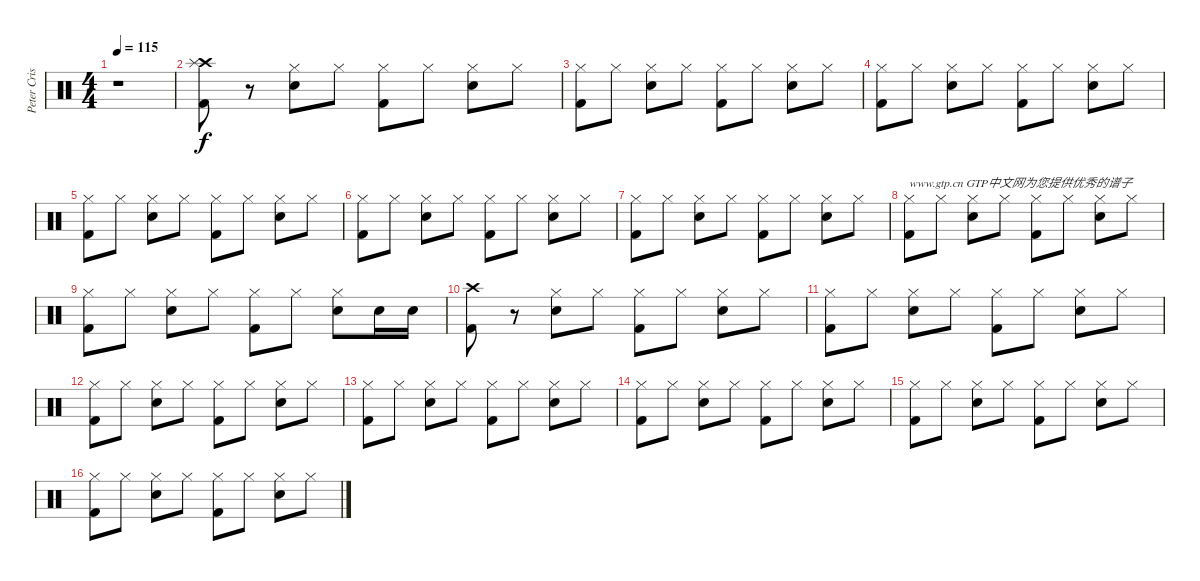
\track ("Peter Criss" "Peter Cris") {instrument percussion}
\staff {score}
\articulation defaults
\ts (4 4)
\tempo 115
\clef neutral
\ks c
r.1{dy f} |
("Crash high (hit)" "Splash (hit)" "Kick (hit) 2").8 r.8 ("Hi-Hat (closed)" "Electric Snare (hit)").8 "Hi-Hat (closed)".8 ("Hi-Hat (closed)" "Kick (hit) 2").8 "Hi-Hat (closed)".8 ("Hi-Hat (closed)" "Electric Snare (hit)").8 "Hi-Hat (closed)".8 |
("Hi-Hat (closed)" "Kick (hit) 2").8 "Hi-Hat (closed)".8 ("Hi-Hat (closed)" "Electric Snare (hit)").8 "Hi-Hat (closed)".8 ("Hi-Hat (closed)" "Kick (hit) 2").8 "Hi-Hat (closed)".8 ("Hi-Hat (closed)" "Electric Snare (hit)").8 "Hi-Hat (closed)".8 |
("Hi-Hat (closed)" "Kick (hit) 2").8 "Hi-Hat (closed)".8 ("Hi-Hat (closed)" "Electric Snare (hit)").8 "Hi-Hat (closed)".8 ("Hi-Hat (closed)" "Kick (hit) 2").8 "Hi-Hat (closed)".8 ("Hi-Hat (closed)" "Electric Snare (hit)").8 "Hi-Hat (closed)".8 |
("Hi-Hat (closed)" "Kick (hit) 2").8 "Hi-Hat (closed)".8 ("Hi-Hat (closed)" "Electric Snare (hit)").8 "Hi-Hat (closed)".8 ("Hi-Hat (closed)" "Kick (hit) 2").8 "Hi-Hat (closed)".8 ("Hi-Hat (closed)" "Electric Snare (hit)").8 "Hi-Hat (closed)".8 |
("Hi-Hat (closed)" "Kick (hit) 2").8 "Hi-Hat (closed)".8 ("Hi-Hat (closed)" "Electric Snare (hit)").8 "Hi-Hat (closed)".8 ("Hi-Hat (closed)" "Kick (hit) 2").8 "Hi-Hat (closed)".8 ("Hi-Hat (closed)" "Electric Snare (hit)").8 "Hi-Hat (closed)".8 |
("Hi-Hat (closed)" "Kick (hit) 2").8 "Hi-Hat (closed)".8 ("Hi-Hat (closed)" "Electric Snare (hit)").8 "Hi-Hat (closed)".8 ("Hi-Hat (closed)" "Kick (hit) 2").8 "Hi-Hat (closed)".8 ("Hi-Hat (closed)" "Electric Snare (hit)").8 "Hi-Hat (closed)".8 |
("Hi-Hat (closed)" "Kick (hit) 2").8{txt "www.gtp.cn GTP中文网为您提供优秀的谱子"} "Hi-Hat (closed)".8 ("Hi-Hat (closed)" "Electric Snare (hit)").8 "Hi-Hat (closed)".8 ("Hi-Hat (closed)" "Kick (hit) 2").8 "Hi-Hat (closed)".8 ("Hi-Hat (closed)" "Electric Snare (hit)").8 "Hi-Hat (closed)".8 |
("Hi-Hat (closed)" "Kick (hit) 2").8 "Hi-Hat (closed)".8 ("Hi-Hat (closed)" "Electric Snare (hit)").8 "Hi-Hat (closed)".8 ("Hi-Hat (closed)" "Kick (hit) 2").8 "Hi-Hat (closed)".8 ("Hi-Hat (closed)" "Electric Snare (hit)").8 "Electric Snare (hit)".16 "Electric Snare (hit)".16 |
("Crash high (hit)" "Kick (hit) 2").8 r.8 ("Hi-Hat (closed)" "Electric Snare (hit)").8 "Hi-Hat (closed)".8 ("Hi-Hat (closed)" "Kick (hit) 2").8 "Hi-Hat (closed)".8 ("Hi-Hat (closed)" "Electric Snare (hit)").8 "Hi-Hat (closed)".8 |
("Hi-Hat (closed)" "Kick (hit) 2").8 "Hi-Hat (closed)".8 ("Hi-Hat (closed)" "Electric Snare (hit)").8 "Hi-Hat (closed)".8 ("Hi-Hat (closed)" "Kick (hit) 2").8 "Hi-Hat (closed)".8 ("Hi-Hat (closed)" "Electric Snare (hit)").8 "Hi-Hat (closed)".8 |
("Hi-Hat (closed)" "Kick (hit) 2").8 "Hi-Hat (closed)".8 ("Hi-Hat (closed)" "Electric Snare (hit)").8 "Hi-Hat (closed)".8 ("Hi-Hat (closed)" "Kick (hit) 2").8 "Hi-Hat (closed)".8 ("Hi-Hat (closed)" "Electric Snare (hit)").8 "Hi-Hat (closed)".8 |
("Hi-Hat (closed)" "Kick (hit) 2").8 "Hi-Hat (closed)".8 ("Hi-Hat (closed)" "Electric Snare (hit)").8 "Hi-Hat (closed)".8 ("Hi-Hat (closed)" "Kick (hit) 2").8 "Hi-Hat (closed)".8 ("Hi-Hat (closed)" "Electric Snare (hit)").8 "Hi-Hat (closed)".8 |
("Hi-Hat (closed)" "Kick (hit) 2").8 "Hi-Hat (closed)".8 ("Hi-Hat (closed)" "Electric Snare (hit)").8 "Hi-Hat (closed)".8 ("Hi-Hat (closed)" "Kick (hit) 2").8 "Hi-Hat (closed)".8 ("Hi-Hat (closed)" "Electric Snare (hit)").8 "Hi-Hat (closed)".8 |
("Hi-Hat (closed)" "Kick (hit) 2").8 "Hi-Hat (closed)".8 ("Hi-Hat (closed)" "Electric Snare (hit)").8 "Hi-Hat (closed)".8 ("Hi-Hat (closed)" "Kick (hit) 2").8 "Hi-Hat (closed)".8 ("Hi-Hat (closed)" "Electric Snare (hit)").8 "Hi-Hat (closed)".8 |
("Hi-Hat (closed)" "Kick (hit) 2").8 "Hi-Hat (closed)".8 ("Hi-Hat (closed)" "Electric Snare (hit)").8 "Hi-Hat (closed)".8 ("Hi-Hat (closed)" "Kick (hit) 2").8 "Hi-Hat (closed)".8 ("Hi-Hat (closed)" "Electric Snare (hit)").8 "Hi-Hat (closed)".8
